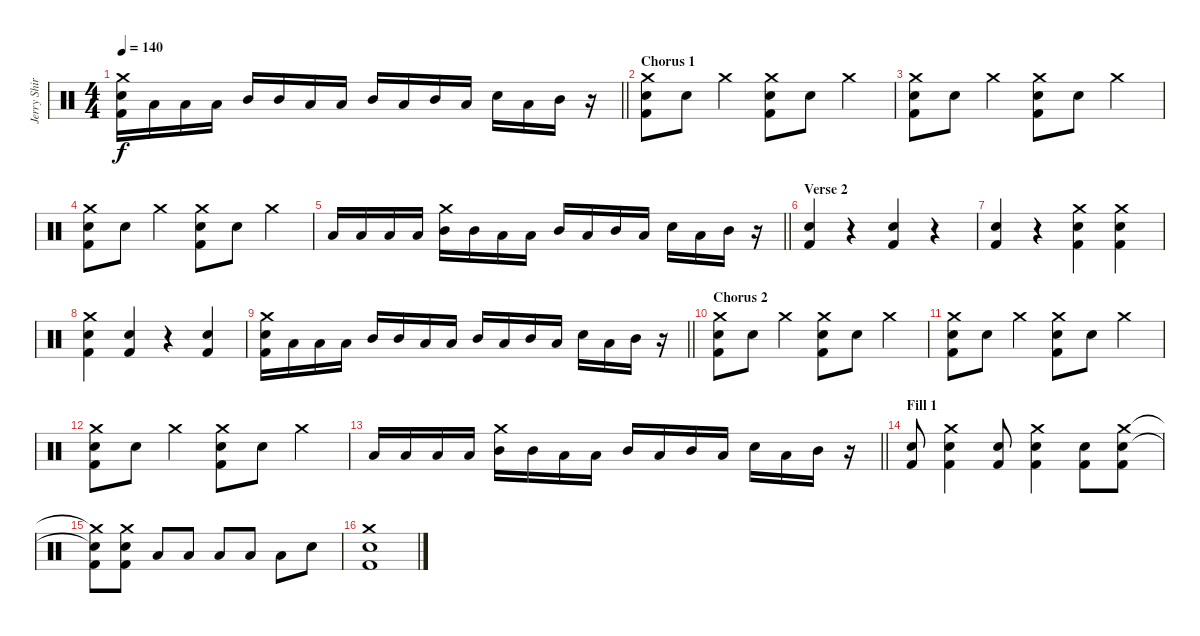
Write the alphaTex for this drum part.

\track ("Jerry Shirley (Drums)" "Jerry Shir") {instrument percussion bank 255}
\staff {score}
\articulation defaults
\ts (4 4)
\tempo 140
\clef neutral
\barLineRight lightlight
\ks c
("Kick (hit) 2" "Electric Snare (hit)" "Crash medium (hit)").16{dy f volume 16} "Low Tom (hit)".16{volume 13} "Low Tom (hit)".16 "Low Tom (hit)".16 "Mid Tom (hit)".16 "Mid Tom (hit)".16 "Low Tom (hit)".16 "Low Tom (hit)".16 "Mid Tom (hit)".16 "Low Tom (hit)".16 "Mid Tom (hit)".16 "Low Tom (hit)".16 "Electric Snare (hit)".16 "Low Tom (hit)".16 "Mid Tom (hit)".16 r.16 |
\section ("" "Chorus 1")
("Electric Snare (hit)" "Kick (hit) 2" "Crash medium (hit)").8 "Electric Snare (hit)".8 "Crash medium (hit)".4 ("Electric Snare (hit)" "Kick (hit) 2" "Crash medium (hit)").8 "Electric Snare (hit)".8 "Crash medium (hit)".4 |
("Electric Snare (hit)" "Kick (hit) 2" "Crash medium (hit)").8 "Electric Snare (hit)".8 "Crash medium (hit)".4 ("Electric Snare (hit)" "Kick (hit) 2" "Crash medium (hit)").8 "Electric Snare (hit)".8 "Crash medium (hit)".4 |
("Electric Snare (hit)" "Kick (hit) 2" "Crash medium (hit)").8 "Electric Snare (hit)".8 "Crash medium (hit)".4 ("Electric Snare (hit)" "Kick (hit) 2" "Crash medium (hit)").8 "Electric Snare (hit)".8 "Crash medium (hit)".4 |
\barLineRight lightlight "Low Tom (hit)".16 "Low Tom (hit)".16 "Low Tom (hit)".16 "Low Tom (hit)".16
("Mid Tom (hit)" "Crash medium (hit)").16 "Mid Tom (hit)".16 "Low Tom (hit)".16 "Low Tom (hit)".16 "Mid Tom (hit)".16 "Low Tom (hit)".16 "Mid Tom (hit)".16 "Low Tom (hit)".16 "Electric Snare (hit)".16 "Low Tom (hit)".16 "Mid Tom (hit)".16 r.16 |
\section ("" "Verse 2")
("Electric Snare (hit)" "Kick (hit) 2").4{volume 7} r.4 ("Electric Snare (hit)" "Kick (hit) 2").4 r.4 |
("Electric Snare (hit)" "Kick (hit) 2").4 r.4 ("Kick (hit) 2" "Electric Snare (hit)" "Crash medium (hit)").4{volume 16} ("Kick (hit) 2" "Electric Snare (hit)" "Crash medium (hit)").4 |
("Kick (hit) 2" "Electric Snare (hit)" "Crash medium (hit)").4 ("Electric Snare (hit)" "Kick (hit) 2").4{volume 6} r.4 ("Electric Snare (hit)" "Kick (hit) 2").4 |
\barLineRight lightlight
("Kick (hit) 2" "Electric Snare (hit)" "Crash medium (hit)").16{volume 16} "Low Tom (hit)".16{volume 13} "Low Tom (hit)".16 "Low Tom (hit)".16 "Mid Tom (hit)".16 "Mid Tom (hit)".16 "Low Tom (hit)".16 "Low Tom (hit)".16 "Mid Tom (hit)".16 "Low Tom (hit)".16 "Mid Tom (hit)".16 "Low Tom (hit)".16 "Electric Snare (hit)".16 "Low Tom (hit)".16 "Mid Tom (hit)".16 r.16 |
\section ("" "Chorus 2")
("Electric Snare (hit)" "Kick (hit) 2" "Crash medium (hit)").8 "Electric Snare (hit)".8 "Crash medium (hit)".4 ("Electric Snare (hit)" "Kick (hit) 2" "Crash medium (hit)").8 "Electric Snare (hit)".8 "Crash medium (hit)".4 |
("Electric Snare (hit)" "Kick (hit) 2" "Crash medium (hit)").8 "Electric Snare (hit)".8 "Crash medium (hit)".4 ("Electric Snare (hit)" "Kick (hit) 2" "Crash medium (hit)").8 "Electric Snare (hit)".8 "Crash medium (hit)".4 |
("Electric Snare (hit)" "Kick (hit) 2" "Crash medium (hit)").8 "Electric Snare (hit)".8 "Crash medium (hit)".4 ("Electric Snare (hit)" "Kick (hit) 2" "Crash medium (hit)").8 "Electric Snare (hit)".8 "Crash medium (hit)".4 |
\barLineRight lightlight "Low Tom (hit)".16 "Low Tom (hit)".16 "Low Tom (hit)".16 "Low Tom (hit)".16
("Mid Tom (hit)" "Crash medium (hit)").16 "Mid Tom (hit)".16 "Low Tom (hit)".16 "Low Tom (hit)".16 "Mid Tom (hit)".16 "Low Tom (hit)".16 "Mid Tom (hit)".16 "Low Tom (hit)".16 "Electric Snare (hit)".16 "Low Tom (hit)".16 "Mid Tom (hit)".16 r.16 |
\section ("" "Fill 1")
("Electric Snare (hit)" "Kick (hit) 2").8 ("Crash medium (hit)" "Electric Snare (hit)" "Kick (hit) 2").4 ("Electric Snare (hit)" "Kick (hit) 2").8 ("Crash medium (hit)" "Electric Snare (hit)" "Kick (hit) 2").4 ("Electric Snare (hit)" "Kick (hit) 2").8 ("Crash medium (hit)" "Electric Snare (hit)" "Kick (hit) 2").8 |
("Crash medium (hit)"{t} "Electric Snare (hit)"{t} "Kick (hit) 2").8 ("Crash medium (hit)" "Electric Snare (hit)" "Kick (hit) 2").8 "Low Tom (hit)".8 "Low Tom (hit)".8 "Low Tom (hit)".8 "Low Tom (hit)".8 "Low Tom (hit)".8 "Electric Snare (hit)".8 |
("Crash medium (hit)" "Electric Snare (hit)" "Kick (hit) 2").1
